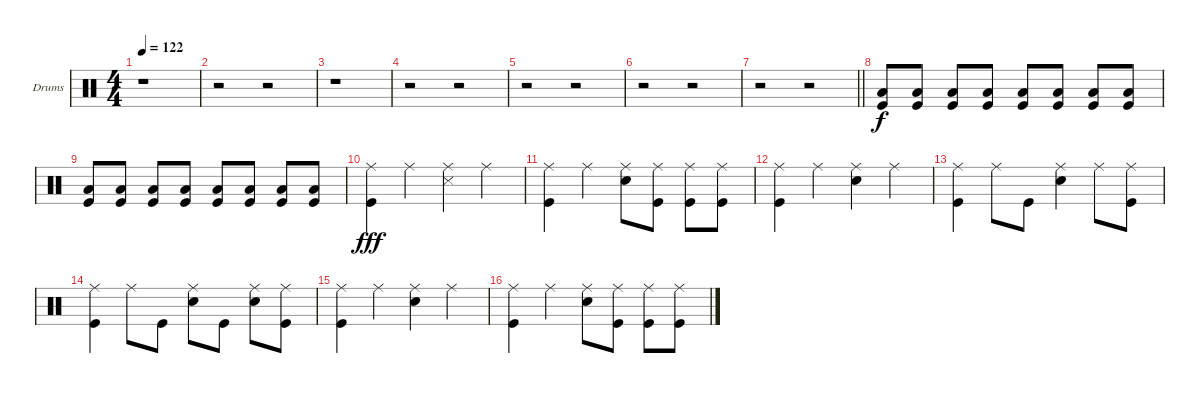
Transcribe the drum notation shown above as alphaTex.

\bracketExtendMode groupsimilarinstruments
\firstSystemTrackNameOrientation horizontal
\otherSystemsTrackNameOrientation horizontal
\track ("Drumkit" "Drums") {instrument percussion}
\staff {score}
\articulation defaults
\ts (4 4)
\tempo 122
\clef neutral
\ks c
r.1{dy f} |
r.2 r.2 |
r.1 |
r.2 r.2 |
r.2 r.2 |
r.2 r.2 |
\barLineRight lightlight
r.2 r.2 |
("Kick (hit)" "Low Tom (hit)").8 ("Kick (hit)" "Low Tom (hit)").8 ("Kick (hit)" "Low Tom (hit)").8 ("Kick (hit)" "Low Tom (hit)").8 ("Kick (hit)" "Low Tom (hit)").8 ("Kick (hit)" "Low Tom (hit)").8 ("Kick (hit)" "Low Tom (hit)").8 ("Kick (hit)" "Low Tom (hit)").8 |
("Kick (hit)" "Low Tom (hit)").8 ("Kick (hit)" "Low Tom (hit)").8 ("Kick (hit)" "Low Tom (hit)").8 ("Kick (hit)" "Low Tom (hit)").8 ("Kick (hit)" "Low Tom (hit)").8 ("Kick (hit)" "Low Tom (hit)").8 ("Kick (hit)" "Low Tom (hit)").8 ("Kick (hit)" "Low Tom (hit)").8 |
("Kick (hit)" "Ride (middle)").4{dy fff} "Ride (middle)".4 ("Ride (middle)" "Snare (side stick) 3").4 "Ride (middle)".4 |
("Ride (middle)" "Kick (hit)").4 "Ride (middle)".4 ("Ride (middle)" "Snare (hit) 2").8 ("Ride (middle)" "Kick (hit)").8 ("Ride (middle)" "Kick (hit)").8 ("Ride (middle)" "Kick (hit)").8 |
("Ride (middle)" "Kick (hit)").4 "Ride (middle)".4 ("Ride (middle)" "Snare (hit) 2").4 "Ride (middle)".4 |
("Ride (middle)" "Kick (hit)").4 "Ride (middle)".8 "Kick (hit)".8 ("Ride (middle)" "Snare (hit) 2").4 "Ride (middle)".8 ("Ride (middle)" "Kick (hit)").8 |
("Ride (middle)" "Kick (hit)").4 "Ride (middle)".8 "Kick (hit)".8 ("Ride (middle)" "Snare (hit) 2").8 "Kick (hit)".8 ("Ride (middle)" "Snare (hit) 2").8 ("Ride (middle)" "Kick (hit)").8 |
("Ride (middle)" "Kick (hit)").4 "Ride (middle)".4 ("Ride (middle)" "Snare (hit) 2").4 "Ride (middle)".4 |
("Ride (middle)" "Kick (hit)").4 "Ride (middle)".4 ("Ride (middle)" "Snare (hit) 2").8 ("Ride (middle)" "Kick (hit)").8 ("Ride (middle)" "Kick (hit)").8 ("Ride (middle)" "Kick (hit)").8
